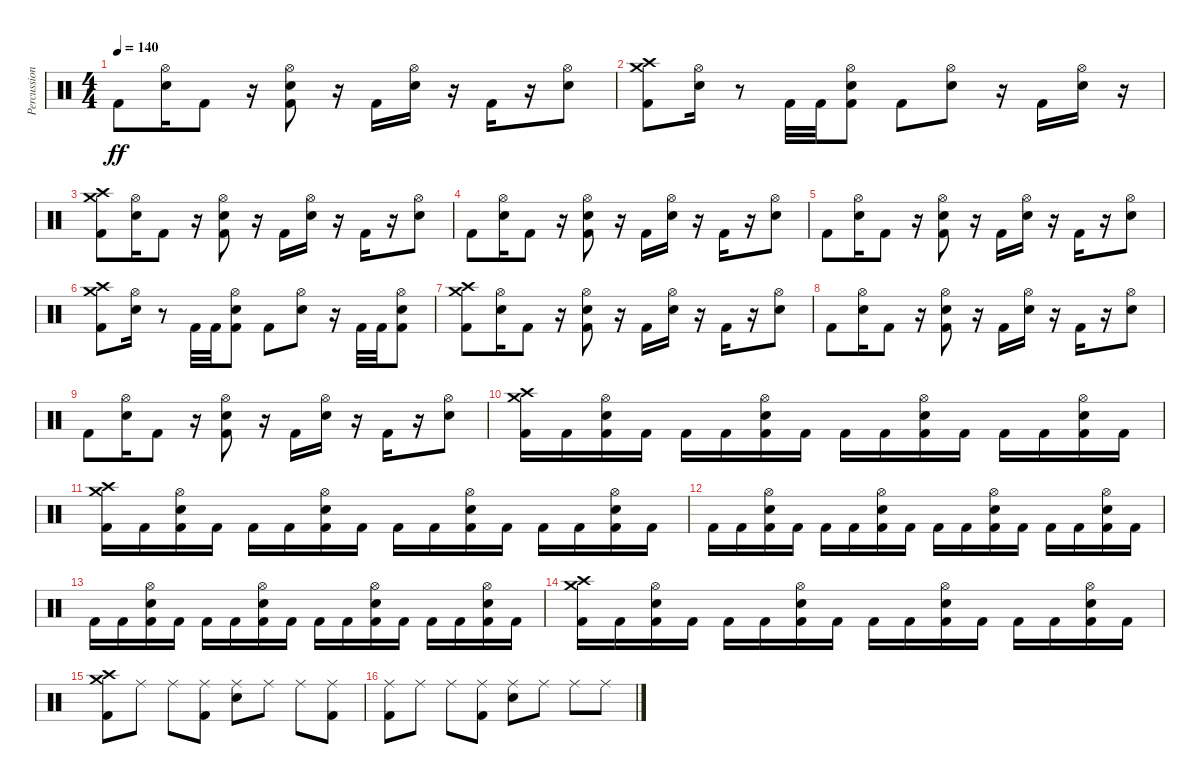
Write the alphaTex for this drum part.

\track ("Percussion" "Percussion") {instrument percussion}
\staff {score}
\articulation defaults
\ts (4 4)
\tempo 140
\clef neutral
\ks c "Kick (hit) 2".8{dy ff}
("Electric Snare (hit)" "Hi-Hat (open)").16 "Kick (hit) 2".8 r.16 ("Kick (hit) 2" "Electric Snare (hit)" "Hi-Hat (open)").8 r.16 "Kick (hit) 2".16 ("Electric Snare (hit)" "Hi-Hat (open)").16 r.16 "Kick (hit) 2".16 r.16 ("Electric Snare (hit)" "Hi-Hat (open)").8 |
("Kick (hit) 2" "Crash medium (hit)" "Crash high (hit)").8 ("Electric Snare (hit)" "Hi-Hat (open)").16 r.8 "Kick (hit) 2".32 "Kick (hit) 2".32 ("Kick (hit) 2" "Electric Snare (hit)" "Hi-Hat (open)").8 "Kick (hit) 2".8 ("Electric Snare (hit)" "Hi-Hat (open)").8 r.16 "Kick (hit) 2".16 ("Electric Snare (hit)" "Hi-Hat (open)").16 r.16 |
("Kick (hit) 2" "Crash medium (hit)" "Crash high (hit)").8 ("Electric Snare (hit)" "Hi-Hat (open)").16 "Kick (hit) 2".8 r.16 ("Kick (hit) 2" "Electric Snare (hit)" "Hi-Hat (open)").8 r.16 "Kick (hit) 2".16 ("Electric Snare (hit)" "Hi-Hat (open)").16 r.16 "Kick (hit) 2".16 r.16 ("Electric Snare (hit)" "Hi-Hat (open)").8 |
"Kick (hit) 2".8 ("Electric Snare (hit)" "Hi-Hat (open)").16 "Kick (hit) 2".8 r.16 ("Kick (hit) 2" "Electric Snare (hit)" "Hi-Hat (open)").8 r.16 "Kick (hit) 2".16 ("Electric Snare (hit)" "Hi-Hat (open)").16 r.16 "Kick (hit) 2".16 r.16 ("Electric Snare (hit)" "Hi-Hat (open)").8 |
"Kick (hit) 2".8 ("Electric Snare (hit)" "Hi-Hat (open)").16 "Kick (hit) 2".8 r.16 ("Kick (hit) 2" "Electric Snare (hit)" "Hi-Hat (open)").8 r.16 "Kick (hit) 2".16 ("Electric Snare (hit)" "Hi-Hat (open)").16 r.16 "Kick (hit) 2".16 r.16 ("Electric Snare (hit)" "Hi-Hat (open)").8 |
("Kick (hit) 2" "Crash medium (hit)" "Crash high (hit)").8 ("Electric Snare (hit)" "Hi-Hat (open)").16 r.8 "Kick (hit) 2".32 "Kick (hit) 2".32 ("Kick (hit) 2" "Electric Snare (hit)" "Hi-Hat (open)").8 "Kick (hit) 2".8 ("Electric Snare (hit)" "Hi-Hat (open)").8 r.16 "Kick (hit) 2".32 "Kick (hit) 2".32 ("Kick (hit) 2" "Electric Snare (hit)" "Hi-Hat (open)").8 |
("Kick (hit) 2" "Crash medium (hit)" "Crash high (hit)").8 ("Electric Snare (hit)" "Hi-Hat (open)").16 "Kick (hit) 2".8 r.16 ("Kick (hit) 2" "Electric Snare (hit)" "Hi-Hat (open)").8 r.16 "Kick (hit) 2".16 ("Electric Snare (hit)" "Hi-Hat (open)").16 r.16 "Kick (hit) 2".16 r.16 ("Electric Snare (hit)" "Hi-Hat (open)").8 |
"Kick (hit) 2".8 ("Electric Snare (hit)" "Hi-Hat (open)").16 "Kick (hit) 2".8 r.16 ("Kick (hit) 2" "Electric Snare (hit)" "Hi-Hat (open)").8 r.16 "Kick (hit) 2".16 ("Electric Snare (hit)" "Hi-Hat (open)").16 r.16 "Kick (hit) 2".16 r.16 ("Electric Snare (hit)" "Hi-Hat (open)").8 |
"Kick (hit) 2".8 ("Electric Snare (hit)" "Hi-Hat (open)").16 "Kick (hit) 2".8 r.16 ("Kick (hit) 2" "Electric Snare (hit)" "Hi-Hat (open)").8 r.16 "Kick (hit) 2".16 ("Electric Snare (hit)" "Hi-Hat (open)").16 r.16 "Kick (hit) 2".16 r.16 ("Electric Snare (hit)" "Hi-Hat (open)").8 |
("Kick (hit) 2" "Crash medium (hit)" "Crash high (hit)").16 "Kick (hit) 2".16 ("Kick (hit) 2" "Electric Snare (hit)" "Hi-Hat (open)").16 "Kick (hit) 2".16 "Kick (hit) 2".16 "Kick (hit) 2".16 ("Kick (hit) 2" "Electric Snare (hit)" "Hi-Hat (open)").16 "Kick (hit) 2".16 "Kick (hit) 2".16 "Kick (hit) 2".16 ("Kick (hit) 2" "Electric Snare (hit)" "Hi-Hat (open)").16 "Kick (hit) 2".16 "Kick (hit) 2".16 "Kick (hit) 2".16 ("Kick (hit) 2" "Electric Snare (hit)" "Hi-Hat (open)").16 "Kick (hit) 2".16 |
("Kick (hit) 2" "Crash medium (hit)" "Crash high (hit)").16 "Kick (hit) 2".16 ("Kick (hit) 2" "Electric Snare (hit)" "Hi-Hat (open)").16 "Kick (hit) 2".16 "Kick (hit) 2".16 "Kick (hit) 2".16 ("Kick (hit) 2" "Electric Snare (hit)" "Hi-Hat (open)").16 "Kick (hit) 2".16 "Kick (hit) 2".16 "Kick (hit) 2".16 ("Kick (hit) 2" "Electric Snare (hit)" "Hi-Hat (open)").16 "Kick (hit) 2".16 "Kick (hit) 2".16 "Kick (hit) 2".16 ("Kick (hit) 2" "Electric Snare (hit)" "Hi-Hat (open)").16 "Kick (hit) 2".16 |
"Kick (hit) 2".16 "Kick (hit) 2".16 ("Kick (hit) 2" "Electric Snare (hit)" "Hi-Hat (open)").16 "Kick (hit) 2".16 "Kick (hit) 2".16 "Kick (hit) 2".16 ("Kick (hit) 2" "Electric Snare (hit)" "Hi-Hat (open)").16 "Kick (hit) 2".16 "Kick (hit) 2".16 "Kick (hit) 2".16 ("Kick (hit) 2" "Electric Snare (hit)" "Hi-Hat (open)").16 "Kick (hit) 2".16 "Kick (hit) 2".16 "Kick (hit) 2".16 ("Kick (hit) 2" "Electric Snare (hit)" "Hi-Hat (open)").16 "Kick (hit) 2".16 |
"Kick (hit) 2".16 "Kick (hit) 2".16 ("Kick (hit) 2" "Electric Snare (hit)" "Hi-Hat (open)").16 "Kick (hit) 2".16 "Kick (hit) 2".16 "Kick (hit) 2".16 ("Kick (hit) 2" "Electric Snare (hit)" "Hi-Hat (open)").16 "Kick (hit) 2".16 "Kick (hit) 2".16 "Kick (hit) 2".16 ("Kick (hit) 2" "Electric Snare (hit)" "Hi-Hat (open)").16 "Kick (hit) 2".16 "Kick (hit) 2".16 "Kick (hit) 2".16 ("Kick (hit) 2" "Electric Snare (hit)" "Hi-Hat (open)").16 "Kick (hit) 2".16 |
("Kick (hit) 2" "Crash medium (hit)" "Crash high (hit)").16 "Kick (hit) 2".16 ("Kick (hit) 2" "Electric Snare (hit)" "Hi-Hat (open)").16 "Kick (hit) 2".16 "Kick (hit) 2".16 "Kick (hit) 2".16 ("Kick (hit) 2" "Electric Snare (hit)" "Hi-Hat (open)").16 "Kick (hit) 2".16 "Kick (hit) 2".16 "Kick (hit) 2".16 ("Kick (hit) 2" "Electric Snare (hit)" "Hi-Hat (open)").16 "Kick (hit) 2".16 "Kick (hit) 2".16 "Kick (hit) 2".16 ("Kick (hit) 2" "Electric Snare (hit)" "Hi-Hat (open)").16 "Kick (hit) 2".16 |
("Kick (hit) 2" "Crash medium (hit)" "Crash high (hit)").8 "Ride (middle)".8 "Ride (middle)".8 ("Kick (hit) 2" "Ride (middle)").8 ("Electric Snare (hit)" "Ride (middle)").8 "Ride (middle)".8 "Ride (middle)".8 ("Kick (hit) 2" "Ride (middle)").8 |
("Kick (hit) 2" "Ride (middle)").8 "Ride (middle)".8 "Ride (middle)".8 ("Kick (hit) 2" "Ride (middle)").8 ("Electric Snare (hit)" "Ride (middle)").8 "Ride (middle)".8 "Ride (middle)".8 "Ride (middle)".8
